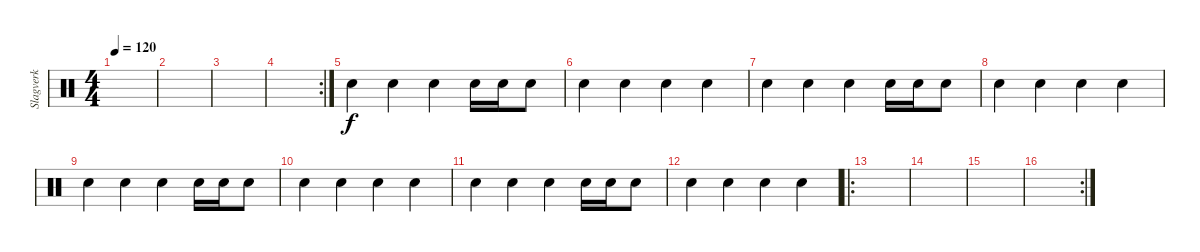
\track ("Slagverk" "Slagverk") {instrument percussion}
\staff {score}
\articulation defaults
\ts (4 4)
\tempo 120
\clef neutral
\ks c
|
|
|
\rc 2
|
"Snare (hit) 2".4 "Snare (hit) 2".4 "Snare (hit) 2".4 "Snare (hit) 2".16 "Snare (hit) 2".16 "Snare (hit) 2".8 |
"Snare (hit) 2".4 "Snare (hit) 2".4 "Snare (hit) 2".4 "Snare (hit) 2".4 |
"Snare (hit) 2".4 "Snare (hit) 2".4 "Snare (hit) 2".4 "Snare (hit) 2".16 "Snare (hit) 2".16 "Snare (hit) 2".8 |
"Snare (hit) 2".4 "Snare (hit) 2".4 "Snare (hit) 2".4 "Snare (hit) 2".4 |
"Snare (hit) 2".4 "Snare (hit) 2".4 "Snare (hit) 2".4 "Snare (hit) 2".16 "Snare (hit) 2".16 "Snare (hit) 2".8 |
"Snare (hit) 2".4 "Snare (hit) 2".4 "Snare (hit) 2".4 "Snare (hit) 2".4 |
"Snare (hit) 2".4 "Snare (hit) 2".4 "Snare (hit) 2".4 "Snare (hit) 2".16 "Snare (hit) 2".16 "Snare (hit) 2".8 |
"Snare (hit) 2".4 "Snare (hit) 2".4 "Snare (hit) 2".4 "Snare (hit) 2".4 |
\ro
|
|
|
\rc 2
